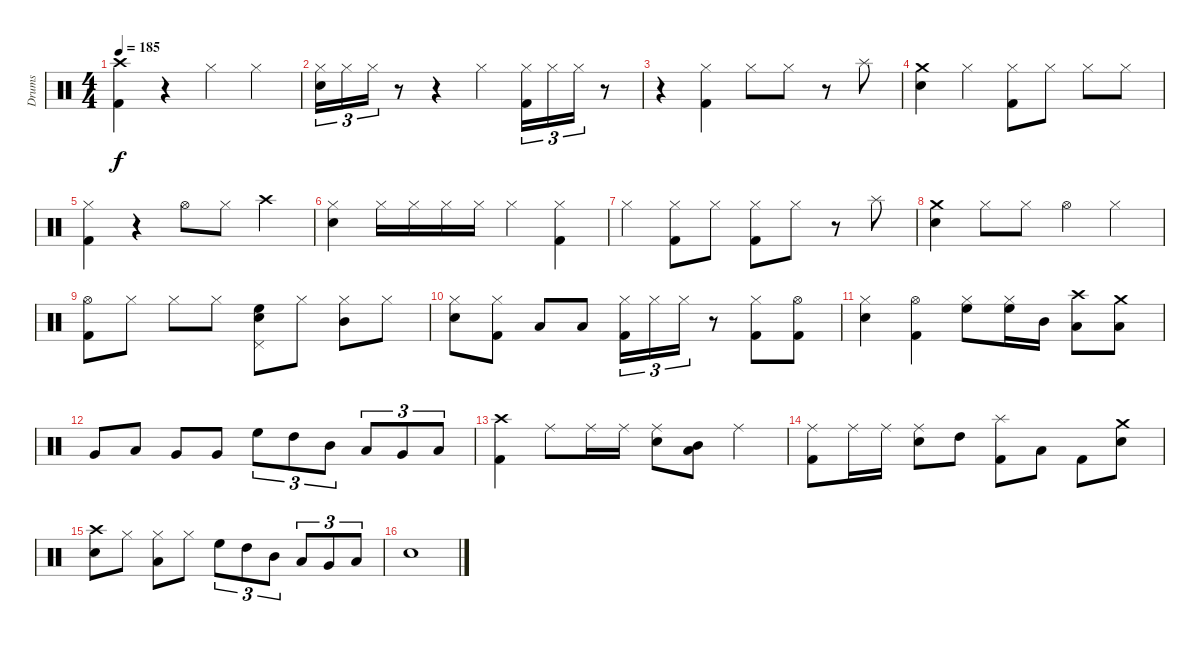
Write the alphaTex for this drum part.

\track ("Drums" "Drums") {instrument percussion}
\staff {score}
\articulation defaults
\ts (4 4)
\tempo 185
\clef neutral
\ks c
("Crash high (hit)" "Kick (hit) 2").4{dy f} r.4 "Hi-Hat (closed)".4 "Hi-Hat (closed)".4 |
("Hi-Hat (closed)" "Snare (hit) 2").16{tu (3 2)} "Hi-Hat (closed)".16{tu (3 2)} "Hi-Hat (closed)".16{tu (3 2)} r.8 r.4 "Hi-Hat (closed)".4 ("Hi-Hat (closed)" "Kick (hit) 2").16{tu (3 2)} "Hi-Hat (closed)".16{tu (3 2)} "Hi-Hat (closed)".16{tu (3 2)} r.8 |
r.4 ("Hi-Hat (closed)" "Kick (hit) 2").4 "Hi-Hat (closed)".8 "Hi-Hat (closed)".8 r.8 "Splash (hit)".8 |
("Crash medium (hit)" "Snare (hit) 2").4 "Hi-Hat (closed)".4 ("Hi-Hat (closed)" "Kick (hit) 2").8 "Hi-Hat (closed)".8 "Hi-Hat (closed)".8 "Hi-Hat (closed)".8 |
("Hi-Hat (closed)" "Kick (hit) 2").4 r.4 "Hi-Hat (open)".8 "Hi-Hat (closed)".8 "Crash high (hit)".4 |
("Hi-Hat (closed)" "Snare (hit) 2").4 "Hi-Hat (closed)".16 "Hi-Hat (closed)".16 "Hi-Hat (closed)".16 "Hi-Hat (closed)".16 "Hi-Hat (closed)".4 ("Hi-Hat (closed)" "Kick (hit) 2").4 |
"Hi-Hat (closed)".4 ("Hi-Hat (closed)" "Kick (hit) 2").8 "Hi-Hat (closed)".8 ("Hi-Hat (closed)" "Kick (hit) 2").8 "Hi-Hat (closed)".8 r.8 "Splash (hit)".8 |
("Crash medium (hit)" "Snare (hit) 2").4 "Hi-Hat (closed)".8 "Hi-Hat (closed)".8 "Hi-Hat (open)".4 "Hi-Hat (closed)".4 |
("Hi-Hat (open)" "Kick (hit) 2").8 "Hi-Hat (closed)".8 "Hi-Hat (closed)".8 "Hi-Hat (closed)".8 ("High Floor Tom (hit)" "Snare (hit) 2" "Pedal Hi-Hat (hit)").8 "Hi-Hat (closed)".8 ("Mid Tom (hit)" "Hi-Hat (closed)").8 "Hi-Hat (closed)".8 |
("Hi-Hat (closed)" "Snare (hit) 2").8 ("Hi-Hat (closed)" "Kick (hit) 2").8 "Low Tom (hit)".8 "Low Floor Tom (hit)".8 ("Hi-Hat (closed)" "Kick (hit) 2").16{tu (3 2)} "Hi-Hat (closed)".16{tu (3 2)} "Hi-Hat (closed)".16{tu (3 2)} r.8 ("Hi-Hat (closed)" "Kick (hit) 2").8 ("Hi-Hat (open)" "Kick (hit) 2").8 |
("Hi-Hat (closed)" "Snare (hit) 2").4 ("Hi-Hat (open)" "Kick (hit) 2").4 ("High Floor Tom (hit)" "Hi-Hat (closed)").8 ("High Floor Tom (hit)" "Hi-Hat (closed)").16 "Mid Tom (hit)".16 ("Low Tom (hit)" "Crash high (hit)").8 ("Low Tom (hit)" "Crash medium (hit)").8 |
"Very Low Tom (hit)".8 "Low Floor Tom (hit)".8 "Very Low Tom (hit)".8 "Very Low Tom (hit)".8 "High Floor Tom (hit)".8{tu (3 2)} "High Tom (hit)".8{tu (3 2)} "Mid Tom (hit)".8{tu (3 2)} "Low Tom (hit)".8{tu (3 2)} "Very Low Tom (hit)".8{tu (3 2)} "Low Floor Tom (hit)".8{tu (3 2)} |
("Crash high (hit)" "Kick (hit) 2").4 "Ride (middle)".8 "Ride (middle)".16 "Ride (middle)".16 ("Ride (middle)" "Snare (hit) 2").8 ("Mid Tom (hit)" "Low Tom (hit)").8 "Ride (middle)".4 |
("Ride (middle)" "Kick (hit) 2").8 "Ride (middle)".16 "Ride (middle)".16 ("Ride (middle)" "Snare (hit) 2").8 "High Tom (hit)".8 ("Splash (hit)" "Kick (hit) 2").8 "Low Tom (hit)".8 "Kick (hit) 2".8 ("Crash medium (hit)" "Snare (hit) 2").8 |
("Crash high (hit)" "Snare (hit) 2").8 "Hi-Hat (closed)".8 ("Hi-Hat (closed)" "Low Tom (hit)").8 "Hi-Hat (closed)".8 "High Floor Tom (hit)".8{tu (3 2)} "High Tom (hit)".8{tu (3 2)} "Mid Tom (hit)".8{tu (3 2)} "Low Tom (hit)".8{tu (3 2)} "Very Low Tom (hit)".8{tu (3 2)} "Low Floor Tom (hit)".8{tu (3 2)} |
"Snare (hit) 2".1
